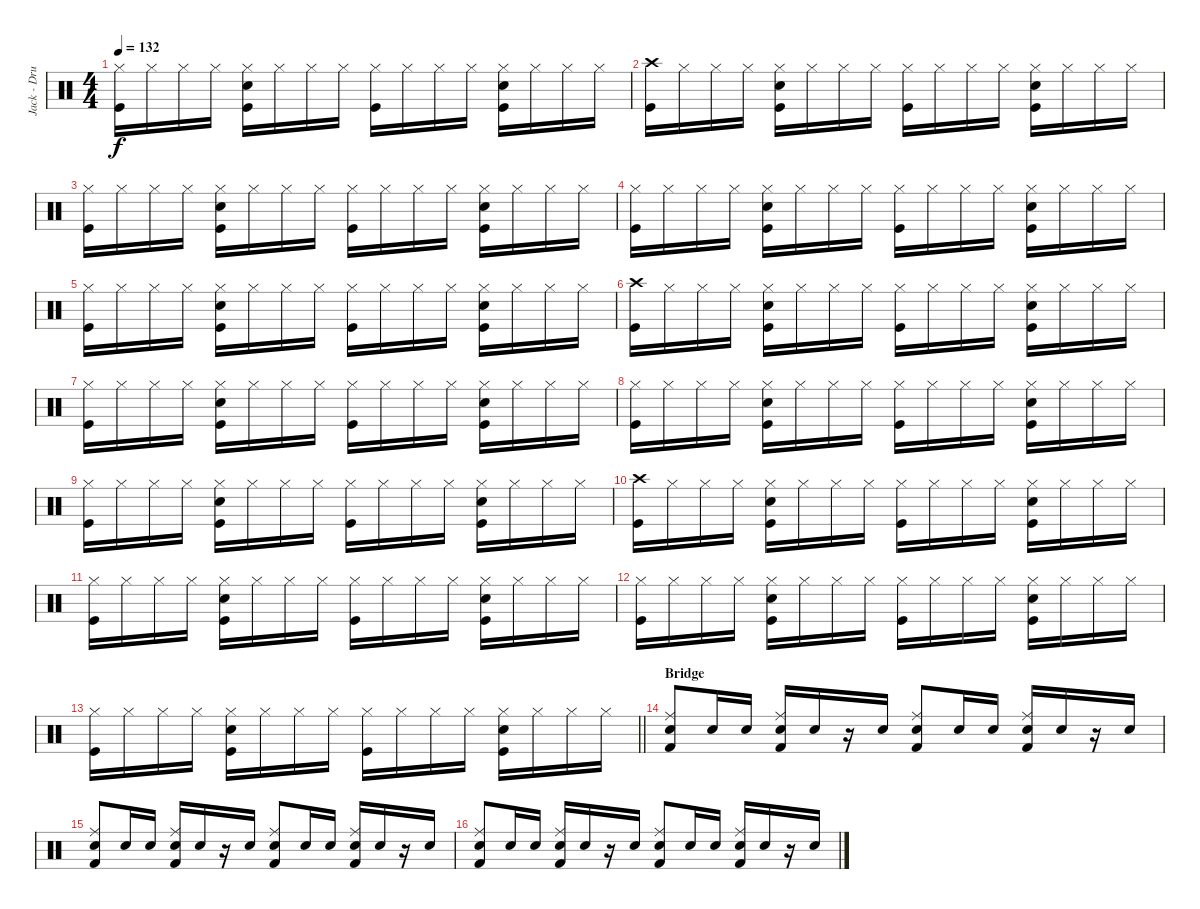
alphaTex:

\track ("Jack - Drums" "Jack - Dru") {instrument percussion}
\staff {score}
\articulation defaults
\ts (4 4)
\tempo 132
\clef neutral
\ks c
("Hi-Hat (closed)" "Kick (hit)").16{dy f} "Hi-Hat (closed)".16 "Hi-Hat (closed)".16 "Hi-Hat (closed)".16 ("Hi-Hat (closed)" "Snare (hit) 2" "Kick (hit)").16 "Hi-Hat (closed)".16 "Hi-Hat (closed)".16 "Hi-Hat (closed)".16 ("Hi-Hat (closed)" "Kick (hit)").16 "Hi-Hat (closed)".16 "Hi-Hat (closed)".16 "Hi-Hat (closed)".16 ("Hi-Hat (closed)" "Snare (hit) 2" "Kick (hit)").16 "Hi-Hat (closed)".16 "Hi-Hat (closed)".16 "Hi-Hat (closed)".16 |
("Crash high (hit)" "Kick (hit)").16 "Hi-Hat (closed)".16 "Hi-Hat (closed)".16 "Hi-Hat (closed)".16 ("Hi-Hat (closed)" "Snare (hit) 2" "Kick (hit)").16 "Hi-Hat (closed)".16 "Hi-Hat (closed)".16 "Hi-Hat (closed)".16 ("Hi-Hat (closed)" "Kick (hit)").16 "Hi-Hat (closed)".16 "Hi-Hat (closed)".16 "Hi-Hat (closed)".16 ("Hi-Hat (closed)" "Snare (hit) 2" "Kick (hit)").16 "Hi-Hat (closed)".16 "Hi-Hat (closed)".16 "Hi-Hat (closed)".16 |
("Hi-Hat (closed)" "Kick (hit)").16 "Hi-Hat (closed)".16 "Hi-Hat (closed)".16 "Hi-Hat (closed)".16 ("Hi-Hat (closed)" "Snare (hit) 2" "Kick (hit)").16 "Hi-Hat (closed)".16 "Hi-Hat (closed)".16 "Hi-Hat (closed)".16 ("Hi-Hat (closed)" "Kick (hit)").16 "Hi-Hat (closed)".16 "Hi-Hat (closed)".16 "Hi-Hat (closed)".16 ("Hi-Hat (closed)" "Snare (hit) 2" "Kick (hit)").16 "Hi-Hat (closed)".16 "Hi-Hat (closed)".16 "Hi-Hat (closed)".16 |
("Hi-Hat (closed)" "Kick (hit)").16 "Hi-Hat (closed)".16 "Hi-Hat (closed)".16 "Hi-Hat (closed)".16 ("Hi-Hat (closed)" "Snare (hit) 2" "Kick (hit)").16 "Hi-Hat (closed)".16 "Hi-Hat (closed)".16 "Hi-Hat (closed)".16 ("Hi-Hat (closed)" "Kick (hit)").16 "Hi-Hat (closed)".16 "Hi-Hat (closed)".16 "Hi-Hat (closed)".16 ("Hi-Hat (closed)" "Snare (hit) 2" "Kick (hit)").16 "Hi-Hat (closed)".16 "Hi-Hat (closed)".16 "Hi-Hat (closed)".16 |
("Hi-Hat (closed)" "Kick (hit)").16 "Hi-Hat (closed)".16 "Hi-Hat (closed)".16 "Hi-Hat (closed)".16 ("Hi-Hat (closed)" "Snare (hit) 2" "Kick (hit)").16 "Hi-Hat (closed)".16 "Hi-Hat (closed)".16 "Hi-Hat (closed)".16 ("Hi-Hat (closed)" "Kick (hit)").16 "Hi-Hat (closed)".16 "Hi-Hat (closed)".16 "Hi-Hat (closed)".16 ("Hi-Hat (closed)" "Snare (hit) 2" "Kick (hit)").16 "Hi-Hat (closed)".16 "Hi-Hat (closed)".16 "Hi-Hat (closed)".16 |
("Crash high (hit)" "Kick (hit)").16 "Hi-Hat (closed)".16 "Hi-Hat (closed)".16 "Hi-Hat (closed)".16 ("Hi-Hat (closed)" "Snare (hit) 2" "Kick (hit)").16 "Hi-Hat (closed)".16 "Hi-Hat (closed)".16 "Hi-Hat (closed)".16 ("Hi-Hat (closed)" "Kick (hit)").16 "Hi-Hat (closed)".16 "Hi-Hat (closed)".16 "Hi-Hat (closed)".16 ("Hi-Hat (closed)" "Snare (hit) 2" "Kick (hit)").16 "Hi-Hat (closed)".16 "Hi-Hat (closed)".16 "Hi-Hat (closed)".16 |
("Hi-Hat (closed)" "Kick (hit)").16 "Hi-Hat (closed)".16 "Hi-Hat (closed)".16 "Hi-Hat (closed)".16 ("Hi-Hat (closed)" "Snare (hit) 2" "Kick (hit)").16 "Hi-Hat (closed)".16 "Hi-Hat (closed)".16 "Hi-Hat (closed)".16 ("Hi-Hat (closed)" "Kick (hit)").16 "Hi-Hat (closed)".16 "Hi-Hat (closed)".16 "Hi-Hat (closed)".16 ("Hi-Hat (closed)" "Snare (hit) 2" "Kick (hit)").16 "Hi-Hat (closed)".16 "Hi-Hat (closed)".16 "Hi-Hat (closed)".16 |
("Hi-Hat (closed)" "Kick (hit)").16 "Hi-Hat (closed)".16 "Hi-Hat (closed)".16 "Hi-Hat (closed)".16 ("Hi-Hat (closed)" "Snare (hit) 2" "Kick (hit)").16 "Hi-Hat (closed)".16 "Hi-Hat (closed)".16 "Hi-Hat (closed)".16 ("Hi-Hat (closed)" "Kick (hit)").16 "Hi-Hat (closed)".16 "Hi-Hat (closed)".16 "Hi-Hat (closed)".16 ("Hi-Hat (closed)" "Snare (hit) 2" "Kick (hit)").16 "Hi-Hat (closed)".16 "Hi-Hat (closed)".16 "Hi-Hat (closed)".16 |
("Hi-Hat (closed)" "Kick (hit)").16 "Hi-Hat (closed)".16 "Hi-Hat (closed)".16 "Hi-Hat (closed)".16 ("Hi-Hat (closed)" "Snare (hit) 2" "Kick (hit)").16 "Hi-Hat (closed)".16 "Hi-Hat (closed)".16 "Hi-Hat (closed)".16 ("Hi-Hat (closed)" "Kick (hit)").16 "Hi-Hat (closed)".16 "Hi-Hat (closed)".16 "Hi-Hat (closed)".16 ("Hi-Hat (closed)" "Snare (hit) 2" "Kick (hit)").16 "Hi-Hat (closed)".16 "Hi-Hat (closed)".16 "Hi-Hat (closed)".16 |
("Crash high (hit)" "Kick (hit)").16 "Hi-Hat (closed)".16 "Hi-Hat (closed)".16 "Hi-Hat (closed)".16 ("Hi-Hat (closed)" "Snare (hit) 2" "Kick (hit)").16 "Hi-Hat (closed)".16 "Hi-Hat (closed)".16 "Hi-Hat (closed)".16 ("Hi-Hat (closed)" "Kick (hit)").16 "Hi-Hat (closed)".16 "Hi-Hat (closed)".16 "Hi-Hat (closed)".16 ("Hi-Hat (closed)" "Snare (hit) 2" "Kick (hit)").16 "Hi-Hat (closed)".16 "Hi-Hat (closed)".16 "Hi-Hat (closed)".16 |
("Hi-Hat (closed)" "Kick (hit)").16 "Hi-Hat (closed)".16 "Hi-Hat (closed)".16 "Hi-Hat (closed)".16 ("Hi-Hat (closed)" "Snare (hit) 2" "Kick (hit)").16 "Hi-Hat (closed)".16 "Hi-Hat (closed)".16 "Hi-Hat (closed)".16 ("Hi-Hat (closed)" "Kick (hit)").16 "Hi-Hat (closed)".16 "Hi-Hat (closed)".16 "Hi-Hat (closed)".16 ("Hi-Hat (closed)" "Snare (hit) 2" "Kick (hit)").16 "Hi-Hat (closed)".16 "Hi-Hat (closed)".16 "Hi-Hat (closed)".16 |
("Hi-Hat (closed)" "Kick (hit)").16 "Hi-Hat (closed)".16 "Hi-Hat (closed)".16 "Hi-Hat (closed)".16 ("Hi-Hat (closed)" "Snare (hit) 2" "Kick (hit)").16 "Hi-Hat (closed)".16 "Hi-Hat (closed)".16 "Hi-Hat (closed)".16 ("Hi-Hat (closed)" "Kick (hit)").16 "Hi-Hat (closed)".16 "Hi-Hat (closed)".16 "Hi-Hat (closed)".16 ("Hi-Hat (closed)" "Snare (hit) 2" "Kick (hit)").16 "Hi-Hat (closed)".16 "Hi-Hat (closed)".16 "Hi-Hat (closed)".16 |
\barLineRight lightlight
("Hi-Hat (closed)" "Kick (hit)").16 "Hi-Hat (closed)".16 "Hi-Hat (closed)".16 "Hi-Hat (closed)".16 ("Hi-Hat (closed)" "Snare (hit) 2" "Kick (hit)").16 "Hi-Hat (closed)".16 "Hi-Hat (closed)".16 "Hi-Hat (closed)".16 ("Hi-Hat (closed)" "Kick (hit)").16 "Hi-Hat (closed)".16 "Hi-Hat (closed)".16 "Hi-Hat (closed)".16 ("Hi-Hat (closed)" "Snare (hit) 2" "Kick (hit)").16 "Hi-Hat (closed)".16 "Hi-Hat (closed)".16 "Hi-Hat (closed)".16 |
\section ("" "Bridge")
("Ride (middle)" "Snare (hit) 2" "Kick (hit) 2").8 "Snare (hit) 2".16 "Snare (hit) 2".16 ("Ride (middle)" "Snare (hit) 2" "Kick (hit) 2").16 "Snare (hit) 2".16 r.16 "Snare (hit) 2".16 ("Ride (middle)" "Snare (hit) 2" "Kick (hit) 2").8 "Snare (hit) 2".16 "Snare (hit) 2".16 ("Ride (middle)" "Snare (hit) 2" "Kick (hit) 2").16 "Snare (hit) 2".16 r.16 "Snare (hit) 2".16 |
("Ride (middle)" "Snare (hit) 2" "Kick (hit) 2").8 "Snare (hit) 2".16 "Snare (hit) 2".16 ("Ride (middle)" "Snare (hit) 2" "Kick (hit) 2").16 "Snare (hit) 2".16 r.16 "Snare (hit) 2".16 ("Ride (middle)" "Snare (hit) 2" "Kick (hit) 2").8 "Snare (hit) 2".16 "Snare (hit) 2".16 ("Ride (middle)" "Snare (hit) 2" "Kick (hit) 2").16 "Snare (hit) 2".16 r.16 "Snare (hit) 2".16 |
("Ride (middle)" "Snare (hit) 2" "Kick (hit) 2").8 "Snare (hit) 2".16 "Snare (hit) 2".16 ("Ride (middle)" "Snare (hit) 2" "Kick (hit) 2").16 "Snare (hit) 2".16 r.16 "Snare (hit) 2".16 ("Ride (middle)" "Snare (hit) 2" "Kick (hit) 2").8 "Snare (hit) 2".16 "Snare (hit) 2".16 ("Ride (middle)" "Snare (hit) 2" "Kick (hit) 2").16 "Snare (hit) 2".16 r.16 "Snare (hit) 2".16
